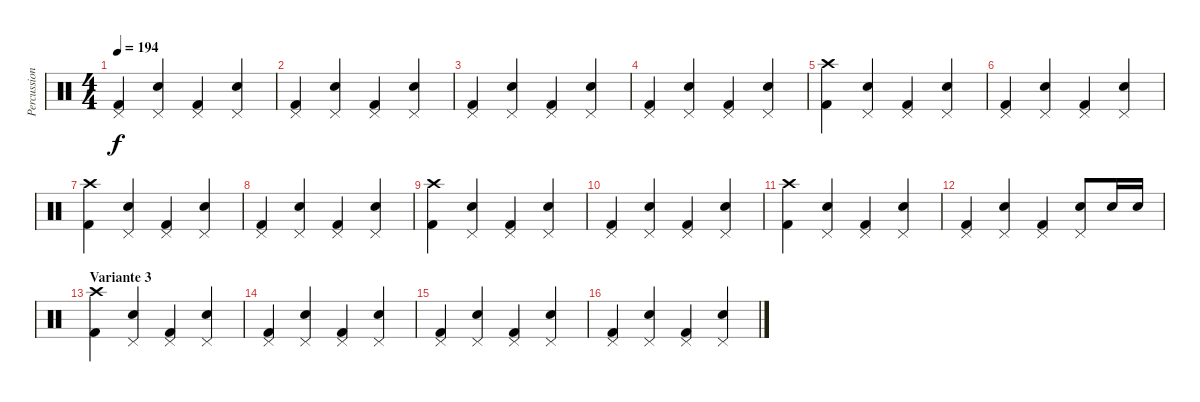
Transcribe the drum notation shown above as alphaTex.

\track ("Percussions" "Percussion") {instrument percussion}
\staff {score}
\articulation defaults
\ts (4 4)
\tempo 194
\clef neutral
\ks c
("Pedal Hi-Hat (hit)" "Kick (hit) 2").4{dy f} ("Pedal Hi-Hat (hit)" "Snare (hit) 2").4 ("Pedal Hi-Hat (hit)" "Kick (hit) 2").4 ("Pedal Hi-Hat (hit)" "Snare (hit) 2").4 |
("Pedal Hi-Hat (hit)" "Kick (hit) 2").4 ("Pedal Hi-Hat (hit)" "Snare (hit) 2").4 ("Pedal Hi-Hat (hit)" "Kick (hit) 2").4 ("Pedal Hi-Hat (hit)" "Snare (hit) 2").4 |
("Pedal Hi-Hat (hit)" "Kick (hit) 2").4 ("Pedal Hi-Hat (hit)" "Snare (hit) 2").4 ("Pedal Hi-Hat (hit)" "Kick (hit) 2").4 ("Pedal Hi-Hat (hit)" "Snare (hit) 2").4 |
("Pedal Hi-Hat (hit)" "Kick (hit) 2").4 ("Pedal Hi-Hat (hit)" "Snare (hit) 2").4 ("Pedal Hi-Hat (hit)" "Kick (hit) 2").4 ("Pedal Hi-Hat (hit)" "Snare (hit) 2").4 |
("Crash high (hit)" "Kick (hit) 2").4 ("Pedal Hi-Hat (hit)" "Snare (hit) 2").4 ("Pedal Hi-Hat (hit)" "Kick (hit) 2").4 ("Pedal Hi-Hat (hit)" "Snare (hit) 2").4 |
("Pedal Hi-Hat (hit)" "Kick (hit) 2").4 ("Pedal Hi-Hat (hit)" "Snare (hit) 2").4 ("Pedal Hi-Hat (hit)" "Kick (hit) 2").4 ("Pedal Hi-Hat (hit)" "Snare (hit) 2").4 |
("Crash high (hit)" "Kick (hit) 2").4 ("Pedal Hi-Hat (hit)" "Snare (hit) 2").4 ("Pedal Hi-Hat (hit)" "Kick (hit) 2").4 ("Pedal Hi-Hat (hit)" "Snare (hit) 2").4 |
("Pedal Hi-Hat (hit)" "Kick (hit) 2").4 ("Pedal Hi-Hat (hit)" "Snare (hit) 2").4 ("Pedal Hi-Hat (hit)" "Kick (hit) 2").4 ("Pedal Hi-Hat (hit)" "Snare (hit) 2").4 |
("Crash high (hit)" "Kick (hit) 2").4 ("Pedal Hi-Hat (hit)" "Snare (hit) 2").4 ("Pedal Hi-Hat (hit)" "Kick (hit) 2").4 ("Pedal Hi-Hat (hit)" "Snare (hit) 2").4 |
("Pedal Hi-Hat (hit)" "Kick (hit) 2").4 ("Pedal Hi-Hat (hit)" "Snare (hit) 2").4 ("Pedal Hi-Hat (hit)" "Kick (hit) 2").4 ("Pedal Hi-Hat (hit)" "Snare (hit) 2").4 |
("Crash high (hit)" "Kick (hit) 2").4 ("Pedal Hi-Hat (hit)" "Snare (hit) 2").4 ("Pedal Hi-Hat (hit)" "Kick (hit) 2").4 ("Pedal Hi-Hat (hit)" "Snare (hit) 2").4 |
("Pedal Hi-Hat (hit)" "Kick (hit) 2").4 ("Pedal Hi-Hat (hit)" "Snare (hit) 2").4 ("Pedal Hi-Hat (hit)" "Kick (hit) 2").4 ("Pedal Hi-Hat (hit)" "Snare (hit) 2").8 "Snare (hit) 2".16 "Snare (hit) 2".16 |
\section ("" "Variante 3")
("Crash high (hit)" "Kick (hit) 2").4 ("Pedal Hi-Hat (hit)" "Snare (hit) 2").4 ("Pedal Hi-Hat (hit)" "Kick (hit) 2").4 ("Pedal Hi-Hat (hit)" "Snare (hit) 2").4 |
("Pedal Hi-Hat (hit)" "Kick (hit) 2").4 ("Pedal Hi-Hat (hit)" "Snare (hit) 2").4 ("Pedal Hi-Hat (hit)" "Kick (hit) 2").4 ("Pedal Hi-Hat (hit)" "Snare (hit) 2").4 |
("Pedal Hi-Hat (hit)" "Kick (hit) 2").4 ("Pedal Hi-Hat (hit)" "Snare (hit) 2").4 ("Pedal Hi-Hat (hit)" "Kick (hit) 2").4 ("Pedal Hi-Hat (hit)" "Snare (hit) 2").4 |
("Pedal Hi-Hat (hit)" "Kick (hit) 2").4 ("Pedal Hi-Hat (hit)" "Snare (hit) 2").4 ("Pedal Hi-Hat (hit)" "Kick (hit) 2").4 ("Pedal Hi-Hat (hit)" "Snare (hit) 2").4
